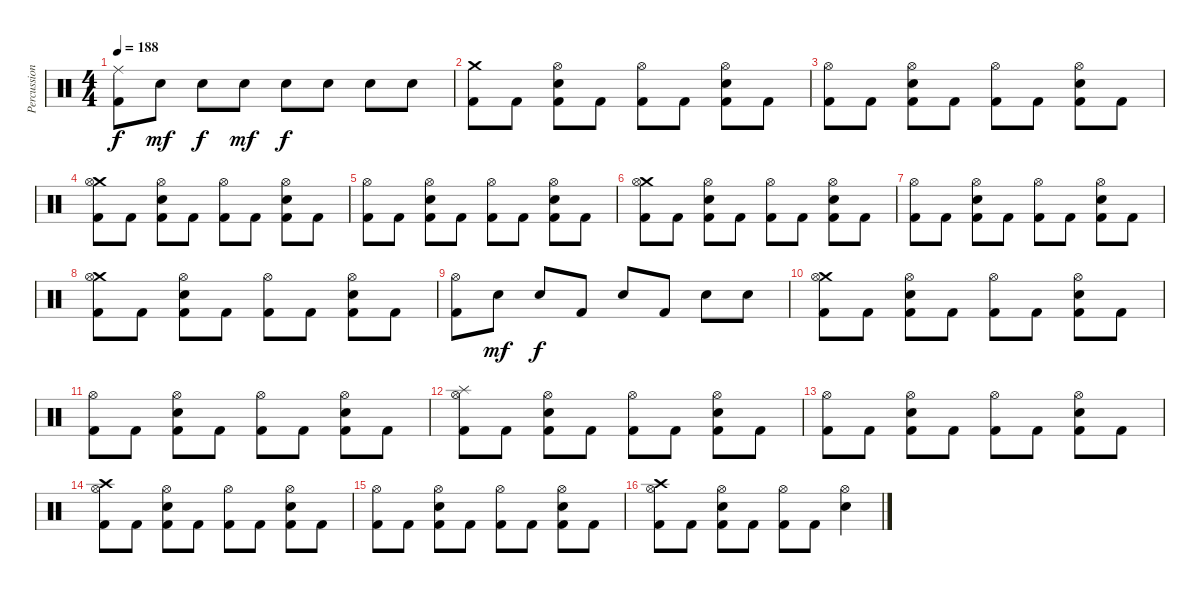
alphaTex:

\track ("Percussions" "Percussion") {instrument percussion}
\staff {score}
\articulation defaults
\ts (4 4)
\tempo 188
\clef neutral
\ks c
("Ride (middle)" "Kick (hit) 2").8{dy f} "Snare (hit) 2".8{dy mf} "Snare (hit) 2".8{dy f} "Snare (hit) 2".8{dy mf} "Snare (hit) 2".8{dy f} "Snare (hit) 2".8 "Snare (hit) 2".8 "Snare (hit) 2".8 |
("Crash medium (hit)" "Kick (hit) 2").8 "Kick (hit) 2".8 ("Hi-Hat (open)" "Snare (hit) 2" "Kick (hit) 2").8 "Kick (hit) 2".8 ("Hi-Hat (open)" "Kick (hit) 2").8 "Kick (hit) 2".8 ("Hi-Hat (open)" "Snare (hit) 2" "Kick (hit) 2").8 "Kick (hit) 2".8 |
("Hi-Hat (open)" "Kick (hit) 2").8 "Kick (hit) 2".8 ("Hi-Hat (open)" "Snare (hit) 2" "Kick (hit) 2").8 "Kick (hit) 2".8 ("Hi-Hat (open)" "Kick (hit) 2").8 "Kick (hit) 2".8 ("Hi-Hat (open)" "Snare (hit) 2" "Kick (hit) 2").8 "Kick (hit) 2".8 |
("Crash medium (hit)" "Hi-Hat (open)" "Kick (hit) 2").8 "Kick (hit) 2".8 ("Hi-Hat (open)" "Snare (hit) 2" "Kick (hit) 2").8 "Kick (hit) 2".8 ("Hi-Hat (open)" "Kick (hit) 2").8 "Kick (hit) 2".8 ("Hi-Hat (open)" "Snare (hit) 2" "Kick (hit) 2").8 "Kick (hit) 2".8 |
("Hi-Hat (open)" "Kick (hit) 2").8 "Kick (hit) 2".8 ("Hi-Hat (open)" "Snare (hit) 2" "Kick (hit) 2").8 "Kick (hit) 2".8 ("Hi-Hat (open)" "Kick (hit) 2").8 "Kick (hit) 2".8 ("Hi-Hat (open)" "Snare (hit) 2" "Kick (hit) 2").8 "Kick (hit) 2".8 |
("Crash medium (hit)" "Hi-Hat (open)" "Kick (hit) 2").8 "Kick (hit) 2".8 ("Hi-Hat (open)" "Snare (hit) 2" "Kick (hit) 2").8 "Kick (hit) 2".8 ("Hi-Hat (open)" "Kick (hit) 2").8 "Kick (hit) 2".8 ("Hi-Hat (open)" "Snare (hit) 2" "Kick (hit) 2").8 "Kick (hit) 2".8 |
("Hi-Hat (open)" "Kick (hit) 2").8 "Kick (hit) 2".8 ("Hi-Hat (open)" "Snare (hit) 2" "Kick (hit) 2").8 "Kick (hit) 2".8 ("Hi-Hat (open)" "Kick (hit) 2").8 "Kick (hit) 2".8 ("Hi-Hat (open)" "Snare (hit) 2" "Kick (hit) 2").8 "Kick (hit) 2".8 |
("Crash medium (hit)" "Hi-Hat (open)" "Kick (hit) 2").8 "Kick (hit) 2".8 ("Hi-Hat (open)" "Snare (hit) 2" "Kick (hit) 2").8 "Kick (hit) 2".8 ("Hi-Hat (open)" "Kick (hit) 2").8 "Kick (hit) 2".8 ("Hi-Hat (open)" "Snare (hit) 2" "Kick (hit) 2").8 "Kick (hit) 2".8 |
("Hi-Hat (open)" "Kick (hit) 2").8 "Snare (hit) 2".8{dy mf} "Snare (hit) 2".8{dy f} "Kick (hit) 2".8 "Snare (hit) 2".8 "Kick (hit) 2".8 "Snare (hit) 2".8 "Snare (hit) 2".8 |
("Crash medium (hit)" "Hi-Hat (open)" "Kick (hit) 2").8 "Kick (hit) 2".8 ("Hi-Hat (open)" "Snare (hit) 2" "Kick (hit) 2").8 "Kick (hit) 2".8 ("Hi-Hat (open)" "Kick (hit) 2").8 "Kick (hit) 2".8 ("Hi-Hat (open)" "Snare (hit) 2" "Kick (hit) 2").8 "Kick (hit) 2".8 |
("Hi-Hat (open)" "Kick (hit) 2").8 "Kick (hit) 2".8 ("Hi-Hat (open)" "Snare (hit) 2" "Kick (hit) 2").8 "Kick (hit) 2".8 ("Hi-Hat (open)" "Kick (hit) 2").8 "Kick (hit) 2".8 ("Hi-Hat (open)" "Snare (hit) 2" "Kick (hit) 2").8 "Kick (hit) 2".8 |
("Hi-Hat (open)" "Splash (hit)" "Kick (hit) 2").8 "Kick (hit) 2".8 ("Hi-Hat (open)" "Snare (hit) 2" "Kick (hit) 2").8 "Kick (hit) 2".8 ("Hi-Hat (open)" "Kick (hit) 2").8 "Kick (hit) 2".8 ("Hi-Hat (open)" "Snare (hit) 2" "Kick (hit) 2").8 "Kick (hit) 2".8 |
("Hi-Hat (open)" "Kick (hit) 2").8 "Kick (hit) 2".8 ("Hi-Hat (open)" "Snare (hit) 2" "Kick (hit) 2").8 "Kick (hit) 2".8 ("Hi-Hat (open)" "Kick (hit) 2").8 "Kick (hit) 2".8 ("Hi-Hat (open)" "Snare (hit) 2" "Kick (hit) 2").8 "Kick (hit) 2".8 |
("Crash high (hit)" "Hi-Hat (open)" "Kick (hit) 2").8 "Kick (hit) 2".8 ("Hi-Hat (open)" "Snare (hit) 2" "Kick (hit) 2").8 "Kick (hit) 2".8 ("Hi-Hat (open)" "Kick (hit) 2").8 "Kick (hit) 2".8 ("Hi-Hat (open)" "Snare (hit) 2" "Kick (hit) 2").8 "Kick (hit) 2".8 |
("Hi-Hat (open)" "Kick (hit) 2").8 "Kick (hit) 2".8 ("Hi-Hat (open)" "Snare (hit) 2" "Kick (hit) 2").8 "Kick (hit) 2".8 ("Hi-Hat (open)" "Kick (hit) 2").8 "Kick (hit) 2".8 ("Hi-Hat (open)" "Snare (hit) 2" "Kick (hit) 2").8 "Kick (hit) 2".8 |
("Crash high (hit)" "Hi-Hat (open)" "Kick (hit) 2").8 "Kick (hit) 2".8 ("Hi-Hat (open)" "Snare (hit) 2" "Kick (hit) 2").8 "Kick (hit) 2".8 ("Hi-Hat (open)" "Kick (hit) 2").8 "Kick (hit) 2".8 ("Hi-Hat (open)" "Snare (hit) 2").4
